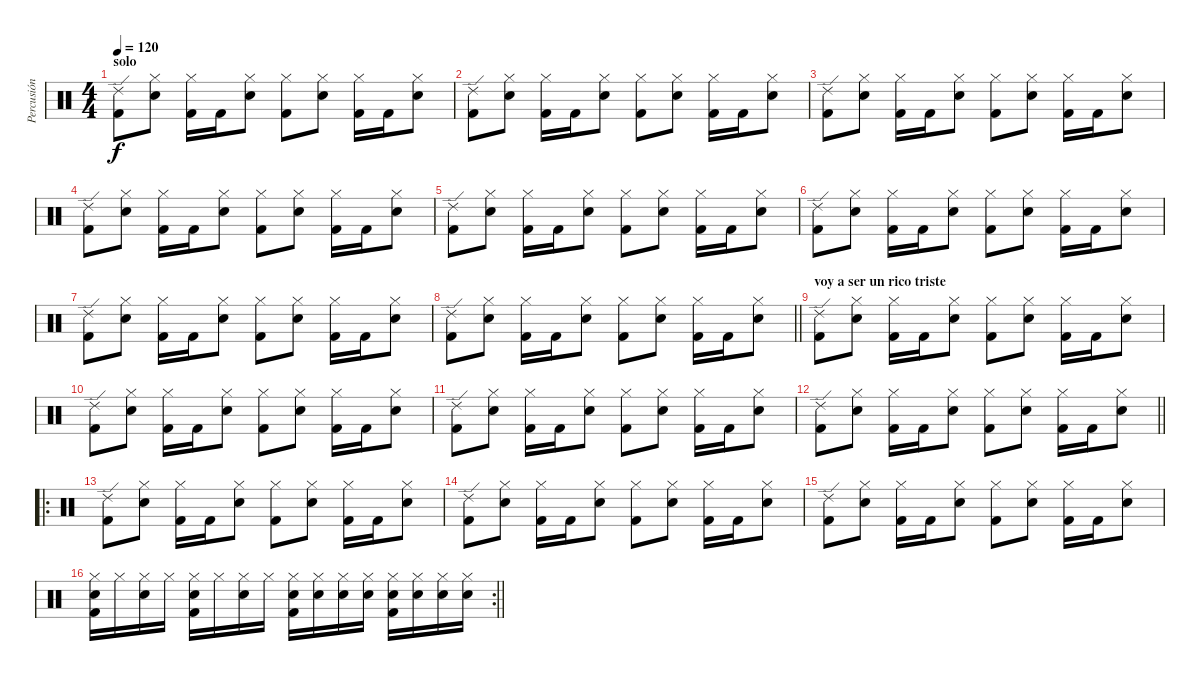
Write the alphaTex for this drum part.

\track ("Percusión" "Percusión") {instrument percussion}
\staff {score}
\articulation defaults
\ts (4 4)
\section ("" "solo")
\tempo 120
\clef neutral
\ks c
("Ride (edge) 2" "Kick (hit) 2").8{dy f} ("Hi-Hat (closed)" "Electric Snare (hit)").8 ("Hi-Hat (closed)" "Kick (hit) 2").16 "Kick (hit) 2".16 ("Hi-Hat (closed)" "Electric Snare (hit)").8 ("Hi-Hat (closed)" "Kick (hit) 2").8 ("Hi-Hat (closed)" "Electric Snare (hit)").8 ("Hi-Hat (closed)" "Kick (hit) 2").16 "Kick (hit) 2".16 ("Hi-Hat (closed)" "Electric Snare (hit)").8 |
("Ride (edge) 2" "Kick (hit) 2").8 ("Hi-Hat (closed)" "Electric Snare (hit)").8 ("Hi-Hat (closed)" "Kick (hit) 2").16 "Kick (hit) 2".16 ("Hi-Hat (closed)" "Electric Snare (hit)").8 ("Hi-Hat (closed)" "Kick (hit) 2").8 ("Hi-Hat (closed)" "Electric Snare (hit)").8 ("Hi-Hat (closed)" "Kick (hit) 2").16 "Kick (hit) 2".16 ("Hi-Hat (closed)" "Electric Snare (hit)").8 |
("Ride (edge) 2" "Kick (hit) 2").8 ("Hi-Hat (closed)" "Electric Snare (hit)").8 ("Hi-Hat (closed)" "Kick (hit) 2").16 "Kick (hit) 2".16 ("Hi-Hat (closed)" "Electric Snare (hit)").8 ("Hi-Hat (closed)" "Kick (hit) 2").8 ("Hi-Hat (closed)" "Electric Snare (hit)").8 ("Hi-Hat (closed)" "Kick (hit) 2").16 "Kick (hit) 2".16 ("Hi-Hat (closed)" "Electric Snare (hit)").8 |
("Ride (edge) 2" "Kick (hit) 2").8 ("Hi-Hat (closed)" "Electric Snare (hit)").8 ("Hi-Hat (closed)" "Kick (hit) 2").16 "Kick (hit) 2".16 ("Hi-Hat (closed)" "Electric Snare (hit)").8 ("Hi-Hat (closed)" "Kick (hit) 2").8 ("Hi-Hat (closed)" "Electric Snare (hit)").8 ("Hi-Hat (closed)" "Kick (hit) 2").16 "Kick (hit) 2".16 ("Hi-Hat (closed)" "Electric Snare (hit)").8 |
("Ride (edge) 2" "Kick (hit) 2").8 ("Hi-Hat (closed)" "Electric Snare (hit)").8 ("Hi-Hat (closed)" "Kick (hit) 2").16 "Kick (hit) 2".16 ("Hi-Hat (closed)" "Electric Snare (hit)").8 ("Hi-Hat (closed)" "Kick (hit) 2").8 ("Hi-Hat (closed)" "Electric Snare (hit)").8 ("Hi-Hat (closed)" "Kick (hit) 2").16 "Kick (hit) 2".16 ("Hi-Hat (closed)" "Electric Snare (hit)").8 |
("Ride (edge) 2" "Kick (hit) 2").8 ("Hi-Hat (closed)" "Electric Snare (hit)").8 ("Hi-Hat (closed)" "Kick (hit) 2").16 "Kick (hit) 2".16 ("Hi-Hat (closed)" "Electric Snare (hit)").8 ("Hi-Hat (closed)" "Kick (hit) 2").8 ("Hi-Hat (closed)" "Electric Snare (hit)").8 ("Hi-Hat (closed)" "Kick (hit) 2").16 "Kick (hit) 2".16 ("Hi-Hat (closed)" "Electric Snare (hit)").8 |
("Ride (edge) 2" "Kick (hit) 2").8 ("Hi-Hat (closed)" "Electric Snare (hit)").8 ("Hi-Hat (closed)" "Kick (hit) 2").16 "Kick (hit) 2".16 ("Hi-Hat (closed)" "Electric Snare (hit)").8 ("Hi-Hat (closed)" "Kick (hit) 2").8 ("Hi-Hat (closed)" "Electric Snare (hit)").8 ("Hi-Hat (closed)" "Kick (hit) 2").16 "Kick (hit) 2".16 ("Hi-Hat (closed)" "Electric Snare (hit)").8 |
\barLineRight lightlight
("Ride (edge) 2" "Kick (hit) 2").8 ("Hi-Hat (closed)" "Electric Snare (hit)").8 ("Hi-Hat (closed)" "Kick (hit) 2").16 "Kick (hit) 2".16 ("Hi-Hat (closed)" "Electric Snare (hit)").8 ("Hi-Hat (closed)" "Kick (hit) 2").8 ("Hi-Hat (closed)" "Electric Snare (hit)").8 ("Hi-Hat (closed)" "Kick (hit) 2").16 "Kick (hit) 2".16 ("Hi-Hat (closed)" "Electric Snare (hit)").8 |
\section ("" "voy a ser un rico triste")
("Ride (edge) 2" "Kick (hit) 2").8 ("Hi-Hat (closed)" "Electric Snare (hit)").8 ("Hi-Hat (closed)" "Kick (hit) 2").16 "Kick (hit) 2".16 ("Hi-Hat (closed)" "Electric Snare (hit)").8 ("Hi-Hat (closed)" "Kick (hit) 2").8 ("Hi-Hat (closed)" "Electric Snare (hit)").8 ("Hi-Hat (closed)" "Kick (hit) 2").16 "Kick (hit) 2".16 ("Hi-Hat (closed)" "Electric Snare (hit)").8 |
("Ride (edge) 2" "Kick (hit) 2").8 ("Hi-Hat (closed)" "Electric Snare (hit)").8 ("Hi-Hat (closed)" "Kick (hit) 2").16 "Kick (hit) 2".16 ("Hi-Hat (closed)" "Electric Snare (hit)").8 ("Hi-Hat (closed)" "Kick (hit) 2").8 ("Hi-Hat (closed)" "Electric Snare (hit)").8 ("Hi-Hat (closed)" "Kick (hit) 2").16 "Kick (hit) 2".16 ("Hi-Hat (closed)" "Electric Snare (hit)").8 |
("Ride (edge) 2" "Kick (hit) 2").8 ("Hi-Hat (closed)" "Electric Snare (hit)").8 ("Hi-Hat (closed)" "Kick (hit) 2").16 "Kick (hit) 2".16 ("Hi-Hat (closed)" "Electric Snare (hit)").8 ("Hi-Hat (closed)" "Kick (hit) 2").8 ("Hi-Hat (closed)" "Electric Snare (hit)").8 ("Hi-Hat (closed)" "Kick (hit) 2").16 "Kick (hit) 2".16 ("Hi-Hat (closed)" "Electric Snare (hit)").8 |
\barLineRight lightlight
("Ride (edge) 2" "Kick (hit) 2").8 ("Hi-Hat (closed)" "Electric Snare (hit)").8 ("Hi-Hat (closed)" "Kick (hit) 2").16 "Kick (hit) 2".16 ("Hi-Hat (closed)" "Electric Snare (hit)").8 ("Hi-Hat (closed)" "Kick (hit) 2").8 ("Hi-Hat (closed)" "Electric Snare (hit)").8 ("Hi-Hat (closed)" "Kick (hit) 2").16 "Kick (hit) 2".16 ("Hi-Hat (closed)" "Electric Snare (hit)").8 |
\ro
("Ride (edge) 2" "Kick (hit) 2").8 ("Hi-Hat (closed)" "Electric Snare (hit)").8 ("Hi-Hat (closed)" "Kick (hit) 2").16 "Kick (hit) 2".16 ("Hi-Hat (closed)" "Electric Snare (hit)").8 ("Hi-Hat (closed)" "Kick (hit) 2").8 ("Hi-Hat (closed)" "Electric Snare (hit)").8 ("Hi-Hat (closed)" "Kick (hit) 2").16 "Kick (hit) 2".16 ("Hi-Hat (closed)" "Electric Snare (hit)").8 |
("Ride (edge) 2" "Kick (hit) 2").8 ("Hi-Hat (closed)" "Electric Snare (hit)").8 ("Hi-Hat (closed)" "Kick (hit) 2").16 "Kick (hit) 2".16 ("Hi-Hat (closed)" "Electric Snare (hit)").8 ("Hi-Hat (closed)" "Kick (hit) 2").8 ("Hi-Hat (closed)" "Electric Snare (hit)").8 ("Hi-Hat (closed)" "Kick (hit) 2").16 "Kick (hit) 2".16 ("Hi-Hat (closed)" "Electric Snare (hit)").8 |
("Ride (edge) 2" "Kick (hit) 2").8 ("Hi-Hat (closed)" "Electric Snare (hit)").8 ("Hi-Hat (closed)" "Kick (hit) 2").16 "Kick (hit) 2".16 ("Hi-Hat (closed)" "Electric Snare (hit)").8 ("Hi-Hat (closed)" "Kick (hit) 2").8 ("Hi-Hat (closed)" "Electric Snare (hit)").8 ("Hi-Hat (closed)" "Kick (hit) 2").16 "Kick (hit) 2".16 ("Hi-Hat (closed)" "Electric Snare (hit)").8 |
\rc 2
\barLineRight lightlight
("Hi-Hat (closed)" "Electric Snare (hit)" "Kick (hit) 2").16 "Hi-Hat (closed)".16 ("Hi-Hat (closed)" "Electric Snare (hit)").16 "Hi-Hat (closed)".16 ("Hi-Hat (closed)" "Electric Snare (hit)" "Kick (hit) 2").16 "Hi-Hat (closed)".16 ("Hi-Hat (closed)" "Electric Snare (hit)").16 "Hi-Hat (closed)".16 ("Hi-Hat (closed)" "Electric Snare (hit)" "Kick (hit) 2").16 ("Hi-Hat (closed)" "Electric Snare (hit)").16 ("Hi-Hat (closed)" "Electric Snare (hit)").16 ("Hi-Hat (closed)" "Electric Snare (hit)").16 ("Hi-Hat (closed)" "Electric Snare (hit)" "Kick (hit) 2").16 ("Hi-Hat (closed)" "Electric Snare (hit)").16 ("Hi-Hat (closed)" "Electric Snare (hit)").16 ("Hi-Hat (closed)" "Electric Snare (hit)").16
